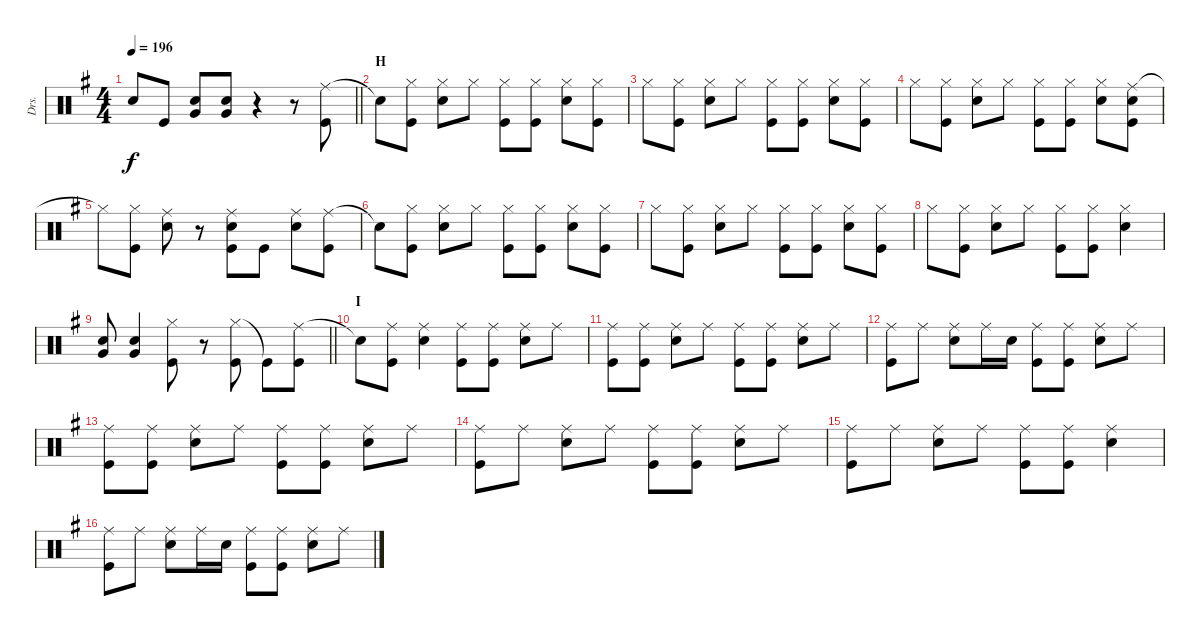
\track ("Drs." "Drs.") {instrument percussion}
\staff {score}
\articulation defaults
\ts (4 4)
\tempo 196
\clef neutral
\barLineRight lightlight
\ks g "Snare (hit)"{t}.8{dy f} "Kick (hit)".8
("Very Low Tom (hit)" "Snare (hit) 2").8 ("Very Low Tom (hit)" "Snare (hit) 2").8 r.4 r.8 ("Ride (middle)" "Kick (hit)").8 |
\section ("" "H")
"Snare (hit)"{t}.8 ("Hi-Hat (closed)" "Kick (hit)").8 ("Hi-Hat (closed)" "Snare (hit) 2").8 "Hi-Hat (closed)".8 ("Hi-Hat (closed)" "Kick (hit)").8 ("Hi-Hat (closed)" "Kick (hit)").8 ("Hi-Hat (closed)" "Snare (hit) 2").8 ("Hi-Hat (closed)" "Kick (hit)").8 |
"Hi-Hat (closed)".8 ("Hi-Hat (closed)" "Kick (hit)").8 ("Hi-Hat (closed)" "Snare (hit) 2").8 "Hi-Hat (closed)".8 ("Hi-Hat (closed)" "Kick (hit)").8 ("Hi-Hat (closed)" "Kick (hit)").8 ("Hi-Hat (closed)" "Snare (hit) 2").8 ("Hi-Hat (closed)" "Kick (hit)").8 |
"Hi-Hat (closed)".8 ("Hi-Hat (closed)" "Kick (hit)").8 ("Hi-Hat (closed)" "Snare (hit) 2").8 "Hi-Hat (closed)".8 ("Hi-Hat (closed)" "Kick (hit)").8 ("Hi-Hat (closed)" "Kick (hit)").8 ("Hi-Hat (closed)" "Snare (hit) 2").8 ("Ride (middle)" "Snare (hit) 2" "Kick (hit)").8 |
"Hi-Hat (closed)"{t}.8 ("Hi-Hat (closed)" "Kick (hit)").8 ("Ride (middle)" "Snare (hit) 2").8 r.8 ("Ride (middle)" "Snare (hit) 2" "Kick (hit)").8 "Kick (hit)".8 ("Ride (middle)" "Snare (hit) 2").8 ("Ride (middle)" "Kick (hit)").8 |
"Snare (hit)"{t}.8 ("Hi-Hat (closed)" "Kick (hit)").8 ("Hi-Hat (closed)" "Snare (hit) 2").8 "Hi-Hat (closed)".8 ("Hi-Hat (closed)" "Kick (hit)").8 ("Hi-Hat (closed)" "Kick (hit)").8 ("Hi-Hat (closed)" "Snare (hit) 2").8 ("Hi-Hat (closed)" "Kick (hit)").8 |
"Hi-Hat (closed)".8 ("Hi-Hat (closed)" "Kick (hit)").8 ("Hi-Hat (closed)" "Snare (hit) 2").8 "Hi-Hat (closed)".8 ("Hi-Hat (closed)" "Kick (hit)").8 ("Hi-Hat (closed)" "Kick (hit)").8 ("Hi-Hat (closed)" "Snare (hit) 2").8 ("Hi-Hat (closed)" "Kick (hit)").8 |
"Hi-Hat (closed)".8 ("Hi-Hat (closed)" "Kick (hit)").8 ("Hi-Hat (closed)" "Snare (hit) 2").8 "Hi-Hat (closed)".8 ("Hi-Hat (closed)" "Kick (hit)").8 ("Hi-Hat (closed)" "Kick (hit)").8 ("Hi-Hat (closed)" "Snare (hit) 2").4 |
\barLineRight lightlight
("Very Low Tom (hit)" "Snare (hit) 2").8 ("Very Low Tom (hit)" "Snare (hit) 2").4 ("Hi-Hat (closed)" "Kick (hit)").8 r.8 ("Hi-Hat (closed)" "Kick (hit)").8 "Kick (hit)"{t}.8 ("Ride (middle)" "Kick (hit)").8 |
\section ("" "I")
"Snare (hit)"{t}.8 ("Ride (middle)" "Kick (hit)").8 ("Ride (middle)" "Snare (hit) 2").4 ("Ride (middle)" "Kick (hit)").8 ("Ride (middle)" "Kick (hit)").8 ("Ride (middle)" "Snare (hit) 2").8 "Ride (middle)".8 |
("Ride (middle)" "Kick (hit)").8 ("Ride (middle)" "Kick (hit)").8 ("Ride (middle)" "Snare (hit) 2").8 "Ride (middle)".8 ("Ride (middle)" "Kick (hit)").8 ("Ride (middle)" "Kick (hit)").8 ("Ride (middle)" "Snare (hit) 2").8 "Ride (middle)".8 |
("Ride (middle)" "Kick (hit)").8 "Ride (middle)".8 ("Ride (middle)" "Snare (hit) 2").8 "Ride (middle)".16 "Snare (hit) 2".16 ("Ride (middle)" "Kick (hit)").8 ("Ride (middle)" "Kick (hit)").8 ("Ride (middle)" "Snare (hit) 2").8 "Ride (middle)".8 |
("Ride (middle)" "Kick (hit)").8 ("Ride (middle)" "Kick (hit)").8 ("Ride (middle)" "Snare (hit) 2").8 "Ride (middle)".8 ("Ride (middle)" "Kick (hit)").8 ("Ride (middle)" "Kick (hit)").8 ("Ride (middle)" "Snare (hit) 2").8 "Ride (middle)".8 |
("Ride (middle)" "Kick (hit)").8 "Ride (middle)".8 ("Ride (middle)" "Snare (hit) 2").8 "Ride (middle)".8 ("Ride (middle)" "Kick (hit)").8 ("Ride (middle)" "Kick (hit)").8 ("Ride (middle)" "Snare (hit) 2").8 "Ride (middle)".8 |
("Ride (middle)" "Kick (hit)").8 "Ride (middle)".8 ("Ride (middle)" "Snare (hit) 2").8 "Ride (middle)".8 ("Ride (middle)" "Kick (hit)").8 ("Ride (middle)" "Kick (hit)").8 ("Ride (middle)" "Snare (hit) 2").4 |
("Ride (middle)" "Kick (hit)").8 "Ride (middle)".8 ("Ride (middle)" "Snare (hit) 2").8 "Ride (middle)".16 "Snare (hit) 2".16 ("Ride (middle)" "Kick (hit)").8 ("Ride (middle)" "Kick (hit)").8 ("Ride (middle)" "Snare (hit) 2").8 "Ride (middle)".8
